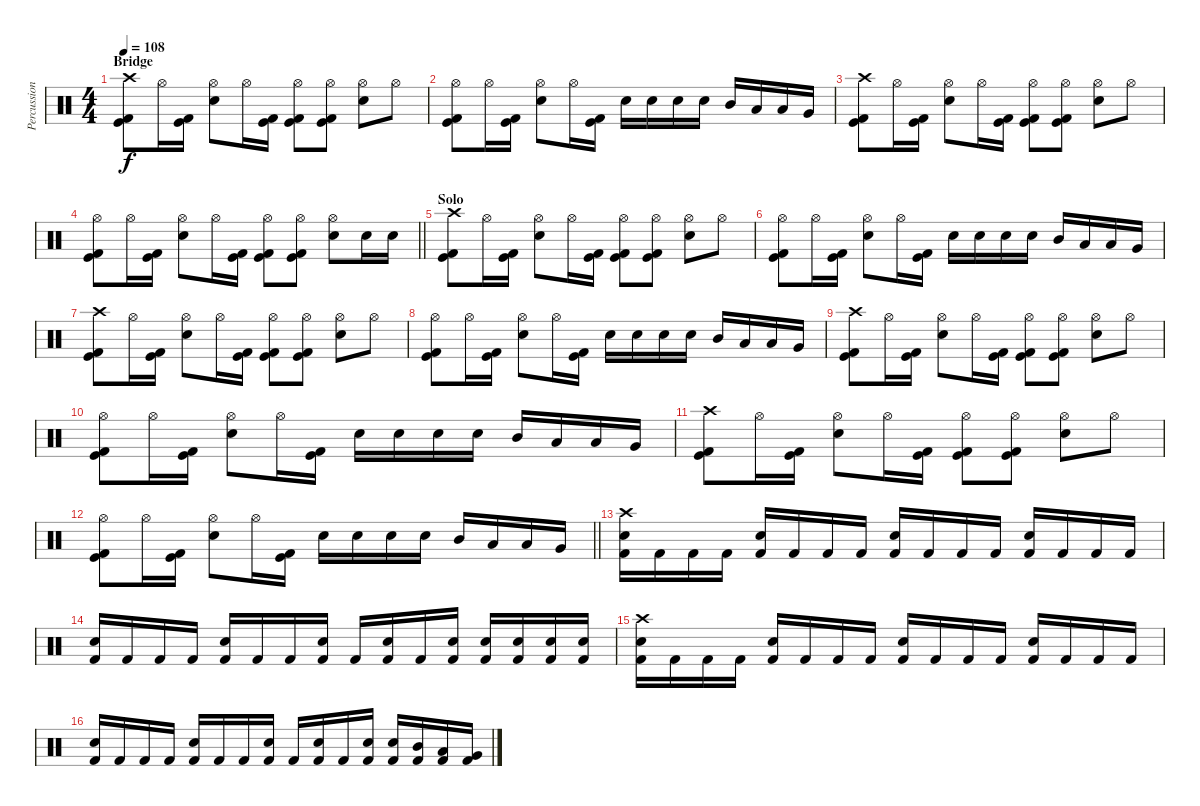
\track ("Percussion" "Percussion") {instrument percussion}
\staff {score}
\articulation defaults
\ts (4 4)
\section ("" "Bridge")
\tempo 108
\clef neutral
\ks c
("Crash high (hit)" "Kick (hit)" "Kick (hit) 2").8{dy f} "Hi-Hat (open)".16 ("Kick (hit)" "Kick (hit) 2").16 ("Hi-Hat (open)" "Electric Snare (hit)").8 "Hi-Hat (open)".16 ("Kick (hit)" "Kick (hit) 2").16 ("Hi-Hat (open)" "Kick (hit)" "Kick (hit) 2").8 ("Hi-Hat (open)" "Kick (hit)" "Kick (hit) 2").8 ("Hi-Hat (open)" "Electric Snare (hit)").8 "Hi-Hat (open)".8 |
("Hi-Hat (open)" "Kick (hit)" "Kick (hit) 2").8 "Hi-Hat (open)".16 ("Kick (hit)" "Kick (hit) 2").16 ("Hi-Hat (open)" "Electric Snare (hit)").8 "Hi-Hat (open)".16 ("Kick (hit)" "Kick (hit) 2").16 "Electric Snare (hit)".16 "Electric Snare (hit)".16 "Electric Snare (hit)".16 "Electric Snare (hit)".16 "Mid Tom (hit)".16 "Low Tom (hit)".16 "Low Tom (hit)".16 "Very Low Tom (hit)".16 |
("Crash high (hit)" "Kick (hit)" "Kick (hit) 2").8 "Hi-Hat (open)".16 ("Kick (hit)" "Kick (hit) 2").16 ("Hi-Hat (open)" "Electric Snare (hit)").8 "Hi-Hat (open)".16 ("Kick (hit)" "Kick (hit) 2").16 ("Hi-Hat (open)" "Kick (hit)" "Kick (hit) 2").8 ("Hi-Hat (open)" "Kick (hit)" "Kick (hit) 2").8 ("Hi-Hat (open)" "Electric Snare (hit)").8 "Hi-Hat (open)".8 |
\barLineRight lightlight
("Hi-Hat (open)" "Kick (hit)" "Kick (hit) 2").8 "Hi-Hat (open)".16 ("Kick (hit)" "Kick (hit) 2").16 ("Hi-Hat (open)" "Electric Snare (hit)").8 "Hi-Hat (open)".16 ("Kick (hit)" "Kick (hit) 2").16 ("Hi-Hat (open)" "Kick (hit)" "Kick (hit) 2").8 ("Hi-Hat (open)" "Kick (hit)" "Kick (hit) 2").8 ("Hi-Hat (open)" "Electric Snare (hit)").8 "Electric Snare (hit)".16 "Electric Snare (hit)".16 |
\section ("" "Solo")
("Crash high (hit)" "Kick (hit)" "Kick (hit) 2").8 "Hi-Hat (open)".16 ("Kick (hit)" "Kick (hit) 2").16 ("Hi-Hat (open)" "Electric Snare (hit)").8 "Hi-Hat (open)".16 ("Kick (hit)" "Kick (hit) 2").16 ("Hi-Hat (open)" "Kick (hit)" "Kick (hit) 2").8 ("Hi-Hat (open)" "Kick (hit)" "Kick (hit) 2").8 ("Hi-Hat (open)" "Electric Snare (hit)").8 "Hi-Hat (open)".8 |
("Hi-Hat (open)" "Kick (hit)" "Kick (hit) 2").8 "Hi-Hat (open)".16 ("Kick (hit)" "Kick (hit) 2").16 ("Hi-Hat (open)" "Electric Snare (hit)").8 "Hi-Hat (open)".16 ("Kick (hit)" "Kick (hit) 2").16 "Electric Snare (hit)".16 "Electric Snare (hit)".16 "Electric Snare (hit)".16 "Electric Snare (hit)".16 "Mid Tom (hit)".16 "Low Tom (hit)".16 "Low Tom (hit)".16 "Very Low Tom (hit)".16 |
("Crash high (hit)" "Kick (hit)" "Kick (hit) 2").8 "Hi-Hat (open)".16 ("Kick (hit)" "Kick (hit) 2").16 ("Hi-Hat (open)" "Electric Snare (hit)").8 "Hi-Hat (open)".16 ("Kick (hit)" "Kick (hit) 2").16 ("Hi-Hat (open)" "Kick (hit)" "Kick (hit) 2").8 ("Hi-Hat (open)" "Kick (hit)" "Kick (hit) 2").8 ("Hi-Hat (open)" "Electric Snare (hit)").8 "Hi-Hat (open)".8 |
("Hi-Hat (open)" "Kick (hit)" "Kick (hit) 2").8 "Hi-Hat (open)".16 ("Kick (hit)" "Kick (hit) 2").16 ("Hi-Hat (open)" "Electric Snare (hit)").8 "Hi-Hat (open)".16 ("Kick (hit)" "Kick (hit) 2").16 "Electric Snare (hit)".16 "Electric Snare (hit)".16 "Electric Snare (hit)".16 "Electric Snare (hit)".16 "Mid Tom (hit)".16 "Low Tom (hit)".16 "Low Tom (hit)".16 "Very Low Tom (hit)".16 |
("Crash high (hit)" "Kick (hit)" "Kick (hit) 2").8 "Hi-Hat (open)".16 ("Kick (hit)" "Kick (hit) 2").16 ("Hi-Hat (open)" "Electric Snare (hit)").8 "Hi-Hat (open)".16 ("Kick (hit)" "Kick (hit) 2").16 ("Hi-Hat (open)" "Kick (hit)" "Kick (hit) 2").8 ("Hi-Hat (open)" "Kick (hit)" "Kick (hit) 2").8 ("Hi-Hat (open)" "Electric Snare (hit)").8 "Hi-Hat (open)".8 |
("Hi-Hat (open)" "Kick (hit)" "Kick (hit) 2").8 "Hi-Hat (open)".16 ("Kick (hit)" "Kick (hit) 2").16 ("Hi-Hat (open)" "Electric Snare (hit)").8 "Hi-Hat (open)".16 ("Kick (hit)" "Kick (hit) 2").16 "Electric Snare (hit)".16 "Electric Snare (hit)".16 "Electric Snare (hit)".16 "Electric Snare (hit)".16 "Mid Tom (hit)".16 "Low Tom (hit)".16 "Low Tom (hit)".16 "Very Low Tom (hit)".16 |
("Crash high (hit)" "Kick (hit)" "Kick (hit) 2").8 "Hi-Hat (open)".16 ("Kick (hit)" "Kick (hit) 2").16 ("Hi-Hat (open)" "Electric Snare (hit)").8 "Hi-Hat (open)".16 ("Kick (hit)" "Kick (hit) 2").16 ("Hi-Hat (open)" "Kick (hit)" "Kick (hit) 2").8 ("Hi-Hat (open)" "Kick (hit)" "Kick (hit) 2").8 ("Hi-Hat (open)" "Electric Snare (hit)").8 "Hi-Hat (open)".8 |
\barLineRight lightlight
("Hi-Hat (open)" "Kick (hit)" "Kick (hit) 2").8 "Hi-Hat (open)".16 ("Kick (hit)" "Kick (hit) 2").16 ("Hi-Hat (open)" "Electric Snare (hit)").8 "Hi-Hat (open)".16 ("Kick (hit)" "Kick (hit) 2").16 "Electric Snare (hit)".16 "Electric Snare (hit)".16 "Electric Snare (hit)".16 "Electric Snare (hit)".16 "Mid Tom (hit)".16 "Low Tom (hit)".16 "Low Tom (hit)".16 "Very Low Tom (hit)".16 |
\section ("" "")
("Crash high (hit)" "Electric Snare (hit)" "Kick (hit) 2").16 "Kick (hit) 2".16 "Kick (hit) 2".16 "Kick (hit) 2".16 ("Electric Snare (hit)" "Kick (hit) 2").16 "Kick (hit) 2".16 "Kick (hit) 2".16 "Kick (hit) 2".16 ("Electric Snare (hit)" "Kick (hit) 2").16 "Kick (hit) 2".16 "Kick (hit) 2".16 "Kick (hit) 2".16 ("Electric Snare (hit)" "Kick (hit) 2").16 "Kick (hit) 2".16 "Kick (hit) 2".16 "Kick (hit) 2".16 |
("Electric Snare (hit)" "Kick (hit) 2").16 "Kick (hit) 2".16 "Kick (hit) 2".16 "Kick (hit) 2".16 ("Electric Snare (hit)" "Kick (hit) 2").16 "Kick (hit) 2".16 "Kick (hit) 2".16 ("Electric Snare (hit)" "Kick (hit) 2").16 "Kick (hit) 2".16 ("Electric Snare (hit)" "Kick (hit) 2").16 "Kick (hit) 2".16 ("Electric Snare (hit)" "Kick (hit) 2").16 ("Electric Snare (hit)" "Kick (hit) 2").16 ("Electric Snare (hit)" "Kick (hit) 2").16 ("Electric Snare (hit)" "Kick (hit) 2").16 ("Electric Snare (hit)" "Kick (hit) 2").16 |
("Crash high (hit)" "Electric Snare (hit)" "Kick (hit) 2").16 "Kick (hit) 2".16 "Kick (hit) 2".16 "Kick (hit) 2".16 ("Electric Snare (hit)" "Kick (hit) 2").16 "Kick (hit) 2".16 "Kick (hit) 2".16 "Kick (hit) 2".16 ("Electric Snare (hit)" "Kick (hit) 2").16 "Kick (hit) 2".16 "Kick (hit) 2".16 "Kick (hit) 2".16 ("Electric Snare (hit)" "Kick (hit) 2").16 "Kick (hit) 2".16 "Kick (hit) 2".16 "Kick (hit) 2".16 |
("Electric Snare (hit)" "Kick (hit) 2").16 "Kick (hit) 2".16 "Kick (hit) 2".16 "Kick (hit) 2".16 ("Electric Snare (hit)" "Kick (hit) 2").16 "Kick (hit) 2".16 "Kick (hit) 2".16 ("Electric Snare (hit)" "Kick (hit) 2").16 "Kick (hit) 2".16 ("Electric Snare (hit)" "Kick (hit) 2").16 "Kick (hit) 2".16 ("Electric Snare (hit)" "Kick (hit) 2").16 ("Electric Snare (hit)" "Kick (hit) 2").16 ("Kick (hit) 2" "Mid Tom (hit)").16 ("Kick (hit) 2" "Low Tom (hit)").16 ("Kick (hit) 2" "Very Low Tom (hit)").16
